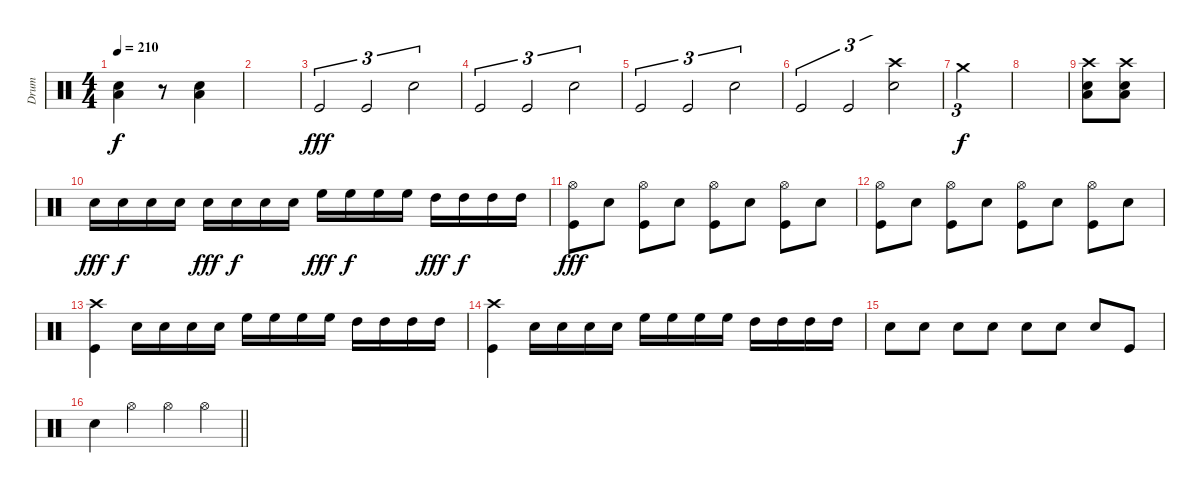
\track ("Drum" "Drum") {instrument percussion}
\staff
\articulation defaults
\ts (4 4)
\tempo 210
\clef neutral
\ks c
("Snare (hit) 2" "Low Tom (hit)").4{dy f} r.8 ("Snare (hit) 2" "Low Tom (hit)").4 |
|
"Kick (hit)".2{tu (3 2) dy fff} "Kick (hit)".2{tu (3 2)} "Snare (hit) 2".2{tu (3 2)} |
"Kick (hit)".2{tu (3 2)} "Kick (hit)".2{tu (3 2)} "Snare (hit) 2".2{tu (3 2)} |
"Kick (hit)".2{tu (3 2)} "Kick (hit)".2{tu (3 2)} "Snare (hit) 2".2{tu (3 2)} |
"Kick (hit)".2{tu (3 2)} "Kick (hit)".2{tu (3 2)} ("Crash high (hit)" "Snare (hit) 2").2{tu (3 2)} |
"Crash medium (hit)".2{tu (3 2) dy f} |
|
("Crash high (hit)" "Snare (hit) 2" "Low Tom (hit)").8 ("Crash high (hit)" "Snare (hit) 2" "Low Tom (hit)").8 |
"Snare (hit) 2".16{dy fff} "Snare (hit) 2".16{dy f} "Snare (hit) 2".16 "Snare (hit) 2".16 "Snare (hit) 2".16{dy fff} "Snare (hit) 2".16{dy f} "Snare (hit) 2".16 "Snare (hit) 2".16 "High Floor Tom (hit)".16{dy fff} "High Floor Tom (hit)".16{dy f} "High Floor Tom (hit)".16 "High Floor Tom (hit)".16 "High Tom (hit)".16{dy fff} "High Tom (hit)".16{dy f} "High Tom (hit)".16 "High Tom (hit)".16 |
("Hi-Hat (open)" "Kick (hit)").8{dy fff} "Snare (hit) 2".8 ("Hi-Hat (open)" "Kick (hit)").8 "Snare (hit) 2".8 ("Hi-Hat (open)" "Kick (hit)").8 "Snare (hit) 2".8 ("Hi-Hat (open)" "Kick (hit)").8 "Snare (hit) 2".8 |
("Hi-Hat (open)" "Kick (hit)").8 "Snare (hit) 2".8 ("Hi-Hat (open)" "Kick (hit)").8 "Snare (hit) 2".8 ("Hi-Hat (open)" "Kick (hit)").8 "Snare (hit) 2".8 ("Hi-Hat (open)" "Kick (hit)").8 "Snare (hit) 2".8 |
("Crash high (hit)" "Kick (hit)").4 "Snare (hit) 2".16 "Snare (hit) 2".16 "Snare (hit) 2".16 "Snare (hit) 2".16 "High Floor Tom (hit)".16 "High Floor Tom (hit)".16 "High Floor Tom (hit)".16 "High Floor Tom (hit)".16 "High Tom (hit)".16 "High Tom (hit)".16 "High Tom (hit)".16 "High Tom (hit)".16 |
("Crash high (hit)" "Kick (hit)").4 "Snare (hit) 2".16 "Snare (hit) 2".16 "Snare (hit) 2".16 "Snare (hit) 2".16 "High Floor Tom (hit)".16 "High Floor Tom (hit)".16 "High Floor Tom (hit)".16 "High Floor Tom (hit)".16 "High Tom (hit)".16 "High Tom (hit)".16 "High Tom (hit)".16 "High Tom (hit)".16 |
"Snare (hit) 2".8 "Snare (hit) 2".8 "Snare (hit) 2".8 "Snare (hit) 2".8 "Snare (hit) 2".8 "Snare (hit) 2".8 "Snare (hit) 2".8 "Kick (hit)".8 |
\barLineRight lightlight "Snare (hit) 2".4 "Hi-Hat (open)".4 "Hi-Hat (open)".4 "Hi-Hat (open)".4
